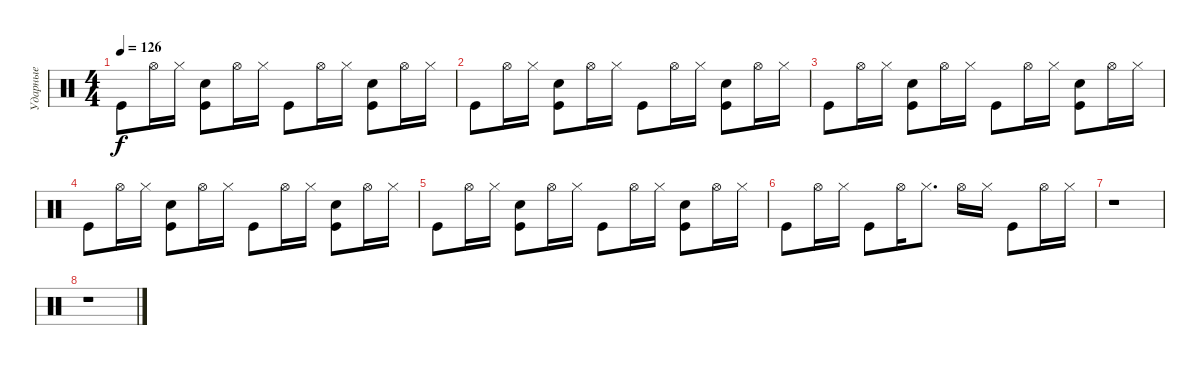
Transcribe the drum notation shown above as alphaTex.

\track ("Ударные" "Ударные") {instrument percussion}
\staff {score}
\articulation defaults
\ts (4 4)
\tempo 126
\clef neutral
\ks c "Kick (hit)".8{dy f} "Hi-Hat (open)".16 "Hi-Hat (closed)".16
("Kick (hit)" "Snare (hit) 2").8 "Hi-Hat (open)".16 "Hi-Hat (closed)".16 "Kick (hit)".8 "Hi-Hat (open)".16 "Hi-Hat (closed)".16 ("Kick (hit)" "Snare (hit) 2").8 "Hi-Hat (open)".16 "Hi-Hat (closed)".16 |
"Kick (hit)".8 "Hi-Hat (open)".16 "Hi-Hat (closed)".16 ("Kick (hit)" "Snare (hit) 2").8 "Hi-Hat (open)".16 "Hi-Hat (closed)".16 "Kick (hit)".8 "Hi-Hat (open)".16 "Hi-Hat (closed)".16 ("Kick (hit)" "Snare (hit) 2").8 "Hi-Hat (open)".16 "Hi-Hat (closed)".16 |
"Kick (hit)".8 "Hi-Hat (open)".16 "Hi-Hat (closed)".16 ("Kick (hit)" "Snare (hit) 2").8 "Hi-Hat (open)".16 "Hi-Hat (closed)".16 "Kick (hit)".8 "Hi-Hat (open)".16 "Hi-Hat (closed)".16 ("Kick (hit)" "Snare (hit) 2").8 "Hi-Hat (open)".16 "Hi-Hat (closed)".16 |
"Kick (hit)".8 "Hi-Hat (open)".16 "Hi-Hat (closed)".16 ("Kick (hit)" "Snare (hit) 2").8 "Hi-Hat (open)".16 "Hi-Hat (closed)".16 "Kick (hit)".8 "Hi-Hat (open)".16 "Hi-Hat (closed)".16 ("Kick (hit)" "Snare (hit) 2").8 "Hi-Hat (open)".16 "Hi-Hat (closed)".16 |
"Kick (hit)".8 "Hi-Hat (open)".16 "Hi-Hat (closed)".16 ("Kick (hit)" "Snare (hit) 2").8 "Hi-Hat (open)".16 "Hi-Hat (closed)".16 "Kick (hit)".8 "Hi-Hat (open)".16 "Hi-Hat (closed)".16 ("Kick (hit)" "Snare (hit) 2").8 "Hi-Hat (open)".16 "Hi-Hat (closed)".16 |
"Kick (hit)".8 "Hi-Hat (open)".16 "Hi-Hat (closed)".16 "Kick (hit)".8 "Hi-Hat (open)".16 "Hi-Hat (closed)".8{d} "Hi-Hat (open)".16 "Hi-Hat (closed)".16 "Kick (hit)".8 "Hi-Hat (open)".16 "Hi-Hat (closed)".16 |
r.1 |
r.1
